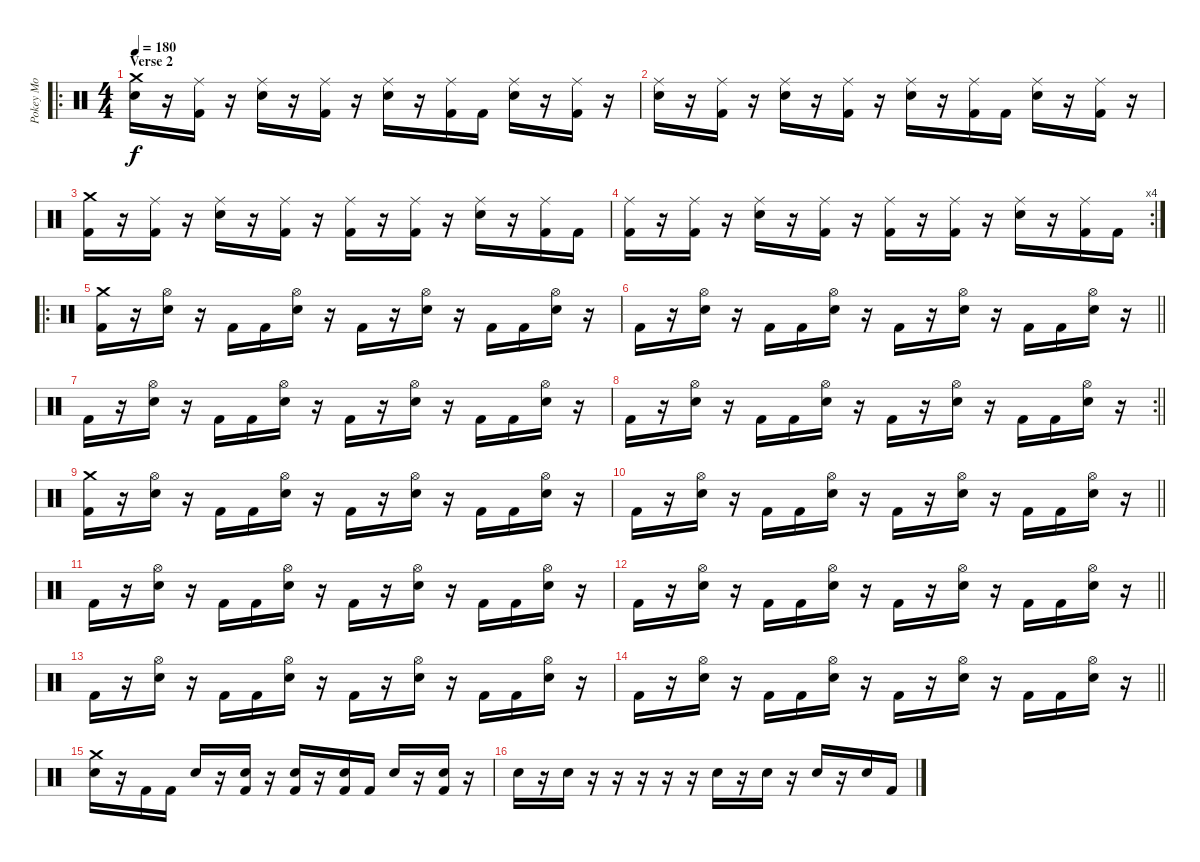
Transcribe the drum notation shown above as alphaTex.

\track ("Pokey Mo" "Pokey Mo") {instrument percussion}
\staff {score}
\articulation defaults
\ro
\ts (4 4)
\section ("" "Verse 2")
\tempo 180
\clef neutral
\ks c
("Crash medium (hit)" "Electric Snare (hit)").16{dy f} r.16 ("Ride (middle)" "Kick (hit) 2").16 r.16 ("Ride (middle)" "Electric Snare (hit)").16 r.16 ("Ride (middle)" "Kick (hit) 2").16 r.16 ("Ride (middle)" "Electric Snare (hit)").16 r.16 ("Ride (middle)" "Kick (hit) 2").16 "Kick (hit) 2".16 ("Ride (middle)" "Electric Snare (hit)").16 r.16 ("Ride (middle)" "Kick (hit) 2").16 r.16 |
("Ride (middle)" "Electric Snare (hit)").16 r.16 ("Ride (middle)" "Kick (hit) 2").16 r.16 ("Ride (middle)" "Electric Snare (hit)").16 r.16 ("Ride (middle)" "Kick (hit) 2").16 r.16 ("Ride (middle)" "Electric Snare (hit)").16 r.16 ("Ride (middle)" "Kick (hit) 2").16 "Kick (hit) 2".16 ("Ride (middle)" "Electric Snare (hit)").16 r.16 ("Ride (middle)" "Kick (hit) 2").16 r.16 |
("Crash medium (hit)" "Kick (hit) 2").16 r.16 ("Ride (middle)" "Kick (hit) 2").16 r.16 ("Ride (middle)" "Electric Snare (hit)").16 r.16 ("Ride (middle)" "Kick (hit) 2").16 r.16 ("Ride (middle)" "Kick (hit) 2").16 r.16 ("Ride (middle)" "Kick (hit) 2").16 r.16 ("Ride (middle)" "Electric Snare (hit)").16 r.16 ("Ride (middle)" "Kick (hit) 2").16 "Kick (hit) 2".16 |
\rc 4
("Ride (middle)" "Kick (hit) 2").16 r.16 ("Ride (middle)" "Kick (hit) 2").16 r.16 ("Ride (middle)" "Electric Snare (hit)").16 r.16 ("Ride (middle)" "Kick (hit) 2").16 r.16 ("Ride (middle)" "Kick (hit) 2").16 r.16 ("Ride (middle)" "Kick (hit) 2").16 r.16 ("Ride (middle)" "Electric Snare (hit)").16 r.16 ("Ride (middle)" "Kick (hit) 2").16 "Kick (hit) 2".16 |
\ro
("Crash medium (hit)" "Kick (hit) 2").16 r.16 ("Hi-Hat (open)" "Electric Snare (hit)").16 r.16 "Kick (hit) 2".16 "Kick (hit) 2".16 ("Hi-Hat (open)" "Electric Snare (hit)").16 r.16 "Kick (hit) 2".16 r.16 ("Hi-Hat (open)" "Electric Snare (hit)").16 r.16 "Kick (hit) 2".16 "Kick (hit) 2".16 ("Hi-Hat (open)" "Electric Snare (hit)").16 r.16 |
\barLineRight lightlight "Kick (hit) 2".16
r.16 ("Hi-Hat (open)" "Electric Snare (hit)").16 r.16 "Kick (hit) 2".16 "Kick (hit) 2".16 ("Hi-Hat (open)" "Electric Snare (hit)").16 r.16 "Kick (hit) 2".16 r.16 ("Hi-Hat (open)" "Electric Snare (hit)").16 r.16 "Kick (hit) 2".16 "Kick (hit) 2".16 ("Hi-Hat (open)" "Electric Snare (hit)").16 r.16 |
"Kick (hit) 2".16 r.16 ("Hi-Hat (open)" "Electric Snare (hit)").16 r.16 "Kick (hit) 2".16 "Kick (hit) 2".16 ("Hi-Hat (open)" "Electric Snare (hit)").16 r.16 "Kick (hit) 2".16 r.16 ("Hi-Hat (open)" "Electric Snare (hit)").16 r.16 "Kick (hit) 2".16 "Kick (hit) 2".16 ("Hi-Hat (open)" "Electric Snare (hit)").16 r.16 |
\rc 2
\barLineRight lightlight "Kick (hit) 2".16
r.16 ("Hi-Hat (open)" "Electric Snare (hit)").16 r.16 "Kick (hit) 2".16 "Kick (hit) 2".16 ("Hi-Hat (open)" "Electric Snare (hit)").16 r.16 "Kick (hit) 2".16 r.16 ("Hi-Hat (open)" "Electric Snare (hit)").16 r.16 "Kick (hit) 2".16 "Kick (hit) 2".16 ("Hi-Hat (open)" "Electric Snare (hit)").16 r.16 |
("Crash medium (hit)" "Kick (hit) 2").16 r.16 ("Hi-Hat (open)" "Electric Snare (hit)").16 r.16 "Kick (hit) 2".16 "Kick (hit) 2".16 ("Hi-Hat (open)" "Electric Snare (hit)").16 r.16 "Kick (hit) 2".16 r.16 ("Hi-Hat (open)" "Electric Snare (hit)").16 r.16 "Kick (hit) 2".16 "Kick (hit) 2".16 ("Hi-Hat (open)" "Electric Snare (hit)").16 r.16 |
\barLineRight lightlight "Kick (hit) 2".16
r.16 ("Hi-Hat (open)" "Electric Snare (hit)").16 r.16 "Kick (hit) 2".16 "Kick (hit) 2".16 ("Hi-Hat (open)" "Electric Snare (hit)").16 r.16 "Kick (hit) 2".16 r.16 ("Hi-Hat (open)" "Electric Snare (hit)").16 r.16 "Kick (hit) 2".16 "Kick (hit) 2".16 ("Hi-Hat (open)" "Electric Snare (hit)").16 r.16 |
"Kick (hit) 2".16 r.16 ("Hi-Hat (open)" "Electric Snare (hit)").16 r.16 "Kick (hit) 2".16 "Kick (hit) 2".16 ("Hi-Hat (open)" "Electric Snare (hit)").16 r.16 "Kick (hit) 2".16 r.16 ("Hi-Hat (open)" "Electric Snare (hit)").16 r.16 "Kick (hit) 2".16 "Kick (hit) 2".16 ("Hi-Hat (open)" "Electric Snare (hit)").16 r.16 |
\barLineRight lightlight "Kick (hit) 2".16
r.16 ("Hi-Hat (open)" "Electric Snare (hit)").16 r.16 "Kick (hit) 2".16 "Kick (hit) 2".16 ("Hi-Hat (open)" "Electric Snare (hit)").16 r.16 "Kick (hit) 2".16 r.16 ("Hi-Hat (open)" "Electric Snare (hit)").16 r.16 "Kick (hit) 2".16 "Kick (hit) 2".16 ("Hi-Hat (open)" "Electric Snare (hit)").16 r.16 |
"Kick (hit) 2".16 r.16 ("Hi-Hat (open)" "Electric Snare (hit)").16 r.16 "Kick (hit) 2".16 "Kick (hit) 2".16 ("Hi-Hat (open)" "Electric Snare (hit)").16 r.16 "Kick (hit) 2".16 r.16 ("Hi-Hat (open)" "Electric Snare (hit)").16 r.16 "Kick (hit) 2".16 "Kick (hit) 2".16 ("Hi-Hat (open)" "Electric Snare (hit)").16 r.16 |
\barLineRight lightlight "Kick (hit) 2".16
r.16 ("Hi-Hat (open)" "Electric Snare (hit)").16 r.16 "Kick (hit) 2".16 "Kick (hit) 2".16 ("Hi-Hat (open)" "Electric Snare (hit)").16 r.16 "Kick (hit) 2".16 r.16 ("Hi-Hat (open)" "Electric Snare (hit)").16 r.16 "Kick (hit) 2".16 "Kick (hit) 2".16 ("Hi-Hat (open)" "Electric Snare (hit)").16 r.16 |
("Crash medium (hit)" "Electric Snare (hit)").16 r.16 "Kick (hit) 2".16 "Kick (hit) 2".16 "Electric Snare (hit)".16 r.16 ("Electric Snare (hit)" "Kick (hit) 2").16 r.16 ("Electric Snare (hit)" "Kick (hit) 2").16 r.16 ("Electric Snare (hit)" "Kick (hit) 2").16 "Kick (hit) 2".16 "Electric Snare (hit)".16 r.16 ("Electric Snare (hit)" "Kick (hit) 2").16 r.16 |
"Electric Snare (hit)".16 r.16 "Electric Snare (hit)".16 r.16 r.16 r.16 r.16 r.16 "Electric Snare (hit)".16 r.16 "Electric Snare (hit)".16 r.16 "Electric Snare (hit)".16 r.16 "Electric Snare (hit)".16 "Kick (hit) 2".16
